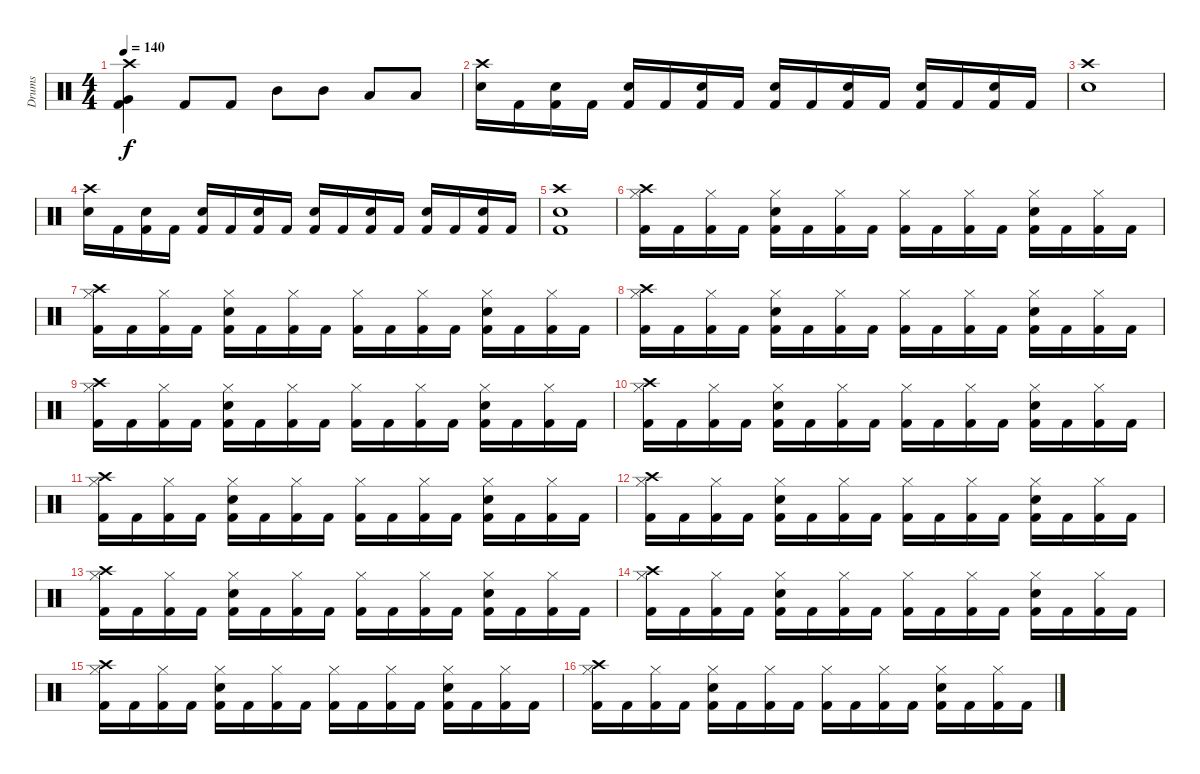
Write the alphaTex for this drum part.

\track ("Drums" "Drums") {instrument percussion}
\staff {score}
\articulation defaults
\ts (4 4)
\tempo 140
\clef neutral
\ks c
("Crash high (hit)" "Very Low Tom (hit)" "Kick (hit) 2").4{dy f} "Kick (hit) 2".8 "Kick (hit) 2".8 "Mid Tom (hit)".8 "Mid Tom (hit)".8 "Low Tom (hit)".8 "Low Tom (hit)".8 |
("Crash high (hit)" "Electric Snare (hit)").16 "Kick (hit) 2".16 ("Electric Snare (hit)" "Kick (hit) 2").16 "Kick (hit) 2".16 ("Electric Snare (hit)" "Kick (hit) 2").16 "Kick (hit) 2".16 ("Electric Snare (hit)" "Kick (hit) 2").16 "Kick (hit) 2".16 ("Electric Snare (hit)" "Kick (hit) 2").16 "Kick (hit) 2".16 ("Electric Snare (hit)" "Kick (hit) 2").16 "Kick (hit) 2".16 ("Electric Snare (hit)" "Kick (hit) 2").16 "Kick (hit) 2".16 ("Electric Snare (hit)" "Kick (hit) 2").16 "Kick (hit) 2".16 |
("Crash high (hit)" "Electric Snare (hit)").1 |
("Crash high (hit)" "Electric Snare (hit)").16 "Kick (hit) 2".16 ("Electric Snare (hit)" "Kick (hit) 2").16 "Kick (hit) 2".16 ("Electric Snare (hit)" "Kick (hit) 2").16 "Kick (hit) 2".16 ("Electric Snare (hit)" "Kick (hit) 2").16 "Kick (hit) 2".16 ("Electric Snare (hit)" "Kick (hit) 2").16 "Kick (hit) 2".16 ("Electric Snare (hit)" "Kick (hit) 2").16 "Kick (hit) 2".16 ("Electric Snare (hit)" "Kick (hit) 2").16 "Kick (hit) 2".16 ("Electric Snare (hit)" "Kick (hit) 2").16 "Kick (hit) 2".16 |
("Crash high (hit)" "Electric Snare (hit)" "Kick (hit) 2").1 |
("Hi-Hat (closed)" "Crash high (hit)" "Kick (hit) 2").16 "Kick (hit) 2".16 ("Hi-Hat (closed)" "Kick (hit) 2").16 "Kick (hit) 2".16 ("Hi-Hat (closed)" "Electric Snare (hit)" "Kick (hit) 2").16 "Kick (hit) 2".16 ("Hi-Hat (closed)" "Kick (hit) 2").16 "Kick (hit) 2".16 ("Hi-Hat (closed)" "Kick (hit) 2").16 "Kick (hit) 2".16 ("Hi-Hat (closed)" "Kick (hit) 2").16 "Kick (hit) 2".16 ("Hi-Hat (closed)" "Electric Snare (hit)" "Kick (hit) 2").16 "Kick (hit) 2".16 ("Hi-Hat (closed)" "Kick (hit) 2").16 "Kick (hit) 2".16 |
("Hi-Hat (closed)" "Crash high (hit)" "Kick (hit) 2").16 "Kick (hit) 2".16 ("Hi-Hat (closed)" "Kick (hit) 2").16 "Kick (hit) 2".16 ("Hi-Hat (closed)" "Electric Snare (hit)" "Kick (hit) 2").16 "Kick (hit) 2".16 ("Hi-Hat (closed)" "Kick (hit) 2").16 "Kick (hit) 2".16 ("Hi-Hat (closed)" "Kick (hit) 2").16 "Kick (hit) 2".16 ("Hi-Hat (closed)" "Kick (hit) 2").16 "Kick (hit) 2".16 ("Hi-Hat (closed)" "Electric Snare (hit)" "Kick (hit) 2").16 "Kick (hit) 2".16 ("Hi-Hat (closed)" "Kick (hit) 2").16 "Kick (hit) 2".16 |
("Hi-Hat (closed)" "Crash high (hit)" "Kick (hit) 2").16 "Kick (hit) 2".16 ("Hi-Hat (closed)" "Kick (hit) 2").16 "Kick (hit) 2".16 ("Hi-Hat (closed)" "Electric Snare (hit)" "Kick (hit) 2").16 "Kick (hit) 2".16 ("Hi-Hat (closed)" "Kick (hit) 2").16 "Kick (hit) 2".16 ("Hi-Hat (closed)" "Kick (hit) 2").16 "Kick (hit) 2".16 ("Hi-Hat (closed)" "Kick (hit) 2").16 "Kick (hit) 2".16 ("Hi-Hat (closed)" "Electric Snare (hit)" "Kick (hit) 2").16 "Kick (hit) 2".16 ("Hi-Hat (closed)" "Kick (hit) 2").16 "Kick (hit) 2".16 |
("Hi-Hat (closed)" "Crash high (hit)" "Kick (hit) 2").16 "Kick (hit) 2".16 ("Hi-Hat (closed)" "Kick (hit) 2").16 "Kick (hit) 2".16 ("Hi-Hat (closed)" "Electric Snare (hit)" "Kick (hit) 2").16 "Kick (hit) 2".16 ("Hi-Hat (closed)" "Kick (hit) 2").16 "Kick (hit) 2".16 ("Hi-Hat (closed)" "Kick (hit) 2").16 "Kick (hit) 2".16 ("Hi-Hat (closed)" "Kick (hit) 2").16 "Kick (hit) 2".16 ("Hi-Hat (closed)" "Electric Snare (hit)" "Kick (hit) 2").16 "Kick (hit) 2".16 ("Hi-Hat (closed)" "Kick (hit) 2").16 "Kick (hit) 2".16 |
("Hi-Hat (closed)" "Crash high (hit)" "Kick (hit) 2").16 "Kick (hit) 2".16 ("Hi-Hat (closed)" "Kick (hit) 2").16 "Kick (hit) 2".16 ("Hi-Hat (closed)" "Electric Snare (hit)" "Kick (hit) 2").16 "Kick (hit) 2".16 ("Hi-Hat (closed)" "Kick (hit) 2").16 "Kick (hit) 2".16 ("Hi-Hat (closed)" "Kick (hit) 2").16 "Kick (hit) 2".16 ("Hi-Hat (closed)" "Kick (hit) 2").16 "Kick (hit) 2".16 ("Hi-Hat (closed)" "Electric Snare (hit)" "Kick (hit) 2").16 "Kick (hit) 2".16 ("Hi-Hat (closed)" "Kick (hit) 2").16 "Kick (hit) 2".16 |
("Hi-Hat (closed)" "Crash high (hit)" "Kick (hit) 2").16 "Kick (hit) 2".16 ("Hi-Hat (closed)" "Kick (hit) 2").16 "Kick (hit) 2".16 ("Hi-Hat (closed)" "Electric Snare (hit)" "Kick (hit) 2").16 "Kick (hit) 2".16 ("Hi-Hat (closed)" "Kick (hit) 2").16 "Kick (hit) 2".16 ("Hi-Hat (closed)" "Kick (hit) 2").16 "Kick (hit) 2".16 ("Hi-Hat (closed)" "Kick (hit) 2").16 "Kick (hit) 2".16 ("Hi-Hat (closed)" "Electric Snare (hit)" "Kick (hit) 2").16 "Kick (hit) 2".16 ("Hi-Hat (closed)" "Kick (hit) 2").16 "Kick (hit) 2".16 |
("Hi-Hat (closed)" "Crash high (hit)" "Kick (hit) 2").16 "Kick (hit) 2".16 ("Hi-Hat (closed)" "Kick (hit) 2").16 "Kick (hit) 2".16 ("Hi-Hat (closed)" "Electric Snare (hit)" "Kick (hit) 2").16 "Kick (hit) 2".16 ("Hi-Hat (closed)" "Kick (hit) 2").16 "Kick (hit) 2".16 ("Hi-Hat (closed)" "Kick (hit) 2").16 "Kick (hit) 2".16 ("Hi-Hat (closed)" "Kick (hit) 2").16 "Kick (hit) 2".16 ("Hi-Hat (closed)" "Electric Snare (hit)" "Kick (hit) 2").16 "Kick (hit) 2".16 ("Hi-Hat (closed)" "Kick (hit) 2").16 "Kick (hit) 2".16 |
("Hi-Hat (closed)" "Crash high (hit)" "Kick (hit) 2").16 "Kick (hit) 2".16 ("Hi-Hat (closed)" "Kick (hit) 2").16 "Kick (hit) 2".16 ("Hi-Hat (closed)" "Electric Snare (hit)" "Kick (hit) 2").16 "Kick (hit) 2".16 ("Hi-Hat (closed)" "Kick (hit) 2").16 "Kick (hit) 2".16 ("Hi-Hat (closed)" "Kick (hit) 2").16 "Kick (hit) 2".16 ("Hi-Hat (closed)" "Kick (hit) 2").16 "Kick (hit) 2".16 ("Hi-Hat (closed)" "Electric Snare (hit)" "Kick (hit) 2").16 "Kick (hit) 2".16 ("Hi-Hat (closed)" "Kick (hit) 2").16 "Kick (hit) 2".16 |
("Hi-Hat (closed)" "Crash high (hit)" "Kick (hit) 2").16 "Kick (hit) 2".16 ("Hi-Hat (closed)" "Kick (hit) 2").16 "Kick (hit) 2".16 ("Hi-Hat (closed)" "Electric Snare (hit)" "Kick (hit) 2").16 "Kick (hit) 2".16 ("Hi-Hat (closed)" "Kick (hit) 2").16 "Kick (hit) 2".16 ("Hi-Hat (closed)" "Kick (hit) 2").16 "Kick (hit) 2".16 ("Hi-Hat (closed)" "Kick (hit) 2").16 "Kick (hit) 2".16 ("Hi-Hat (closed)" "Electric Snare (hit)" "Kick (hit) 2").16 "Kick (hit) 2".16 ("Hi-Hat (closed)" "Kick (hit) 2").16 "Kick (hit) 2".16 |
("Hi-Hat (closed)" "Crash high (hit)" "Kick (hit) 2").16 "Kick (hit) 2".16 ("Hi-Hat (closed)" "Kick (hit) 2").16 "Kick (hit) 2".16 ("Hi-Hat (closed)" "Electric Snare (hit)" "Kick (hit) 2").16 "Kick (hit) 2".16 ("Hi-Hat (closed)" "Kick (hit) 2").16 "Kick (hit) 2".16 ("Hi-Hat (closed)" "Kick (hit) 2").16 "Kick (hit) 2".16 ("Hi-Hat (closed)" "Kick (hit) 2").16 "Kick (hit) 2".16 ("Hi-Hat (closed)" "Electric Snare (hit)" "Kick (hit) 2").16 "Kick (hit) 2".16 ("Hi-Hat (closed)" "Kick (hit) 2").16 "Kick (hit) 2".16 |
("Hi-Hat (closed)" "Crash high (hit)" "Kick (hit) 2").16 "Kick (hit) 2".16 ("Hi-Hat (closed)" "Kick (hit) 2").16 "Kick (hit) 2".16 ("Hi-Hat (closed)" "Electric Snare (hit)" "Kick (hit) 2").16 "Kick (hit) 2".16 ("Hi-Hat (closed)" "Kick (hit) 2").16 "Kick (hit) 2".16 ("Hi-Hat (closed)" "Kick (hit) 2").16 "Kick (hit) 2".16 ("Hi-Hat (closed)" "Kick (hit) 2").16 "Kick (hit) 2".16 ("Hi-Hat (closed)" "Electric Snare (hit)" "Kick (hit) 2").16 "Kick (hit) 2".16 ("Hi-Hat (closed)" "Kick (hit) 2").16 "Kick (hit) 2".16
